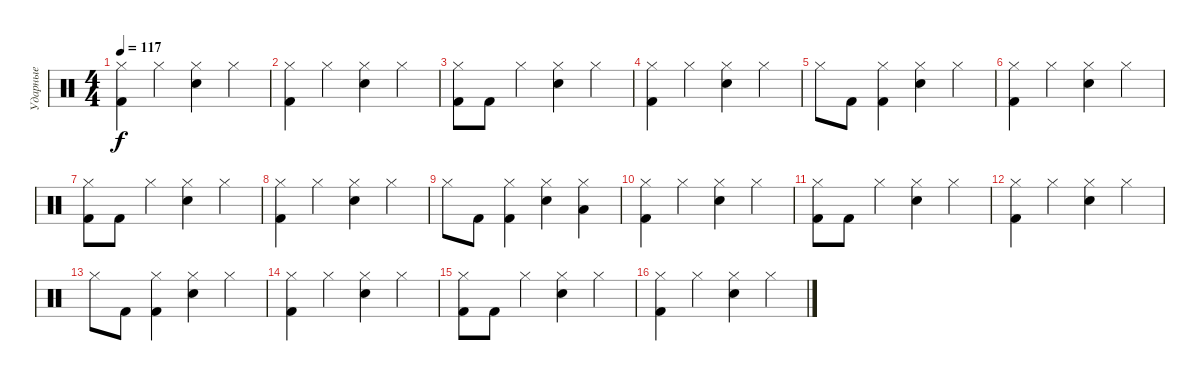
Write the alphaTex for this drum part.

\track ("Ударные" "Ударные") {instrument percussion}
\staff {score}
\articulation defaults
\ts (4 4)
\tempo 117
\clef neutral
\ks c
("Hi-Hat (closed)" "Kick (hit) 2").4{dy f} "Hi-Hat (closed)".4 ("Hi-Hat (closed)" "Electric Snare (hit)").4 "Hi-Hat (closed)".4 |
("Hi-Hat (closed)" "Kick (hit) 2").4 "Hi-Hat (closed)".4 ("Hi-Hat (closed)" "Electric Snare (hit)").4 "Hi-Hat (closed)".4 |
("Hi-Hat (closed)" "Kick (hit) 2").8 "Kick (hit) 2".8 "Hi-Hat (closed)".4 ("Hi-Hat (closed)" "Electric Snare (hit)").4 "Hi-Hat (closed)".4 |
("Hi-Hat (closed)" "Kick (hit) 2").4 "Hi-Hat (closed)".4 ("Hi-Hat (closed)" "Electric Snare (hit)").4 "Hi-Hat (closed)".4 |
"Hi-Hat (closed)".8 "Kick (hit) 2".8 ("Hi-Hat (closed)" "Kick (hit) 2").4 ("Hi-Hat (closed)" "Electric Snare (hit)").4 "Hi-Hat (closed)".4 |
("Hi-Hat (closed)" "Kick (hit) 2").4 "Hi-Hat (closed)".4 ("Hi-Hat (closed)" "Electric Snare (hit)").4 "Hi-Hat (closed)".4 |
("Hi-Hat (closed)" "Kick (hit) 2").8 "Kick (hit) 2".8 "Hi-Hat (closed)".4 ("Hi-Hat (closed)" "Electric Snare (hit)").4 "Hi-Hat (closed)".4 |
("Hi-Hat (closed)" "Kick (hit) 2").4 "Hi-Hat (closed)".4 ("Hi-Hat (closed)" "Electric Snare (hit)").4 "Hi-Hat (closed)".4 |
"Hi-Hat (closed)".8 "Kick (hit) 2".8 ("Hi-Hat (closed)" "Kick (hit) 2").4 ("Hi-Hat (closed)" "Electric Snare (hit)").4 ("Hi-Hat (closed)" "Low Floor Tom (hit)").4 |
("Hi-Hat (closed)" "Kick (hit) 2").4 "Hi-Hat (closed)".4 ("Hi-Hat (closed)" "Electric Snare (hit)").4 "Hi-Hat (closed)".4 |
("Hi-Hat (closed)" "Kick (hit) 2").8 "Kick (hit) 2".8 "Hi-Hat (closed)".4 ("Hi-Hat (closed)" "Electric Snare (hit)").4 "Hi-Hat (closed)".4 |
("Hi-Hat (closed)" "Kick (hit) 2").4 "Hi-Hat (closed)".4 ("Hi-Hat (closed)" "Electric Snare (hit)").4 "Hi-Hat (closed)".4 |
"Hi-Hat (closed)".8 "Kick (hit) 2".8 ("Hi-Hat (closed)" "Kick (hit) 2").4 ("Hi-Hat (closed)" "Electric Snare (hit)").4 "Hi-Hat (closed)".4 |
("Hi-Hat (closed)" "Kick (hit) 2").4 "Hi-Hat (closed)".4 ("Hi-Hat (closed)" "Electric Snare (hit)").4 "Hi-Hat (closed)".4 |
("Hi-Hat (closed)" "Kick (hit) 2").8 "Kick (hit) 2".8 "Hi-Hat (closed)".4 ("Hi-Hat (closed)" "Electric Snare (hit)").4 "Hi-Hat (closed)".4 |
("Hi-Hat (closed)" "Kick (hit) 2").4 "Hi-Hat (closed)".4 ("Hi-Hat (closed)" "Electric Snare (hit)").4 "Hi-Hat (closed)".4
